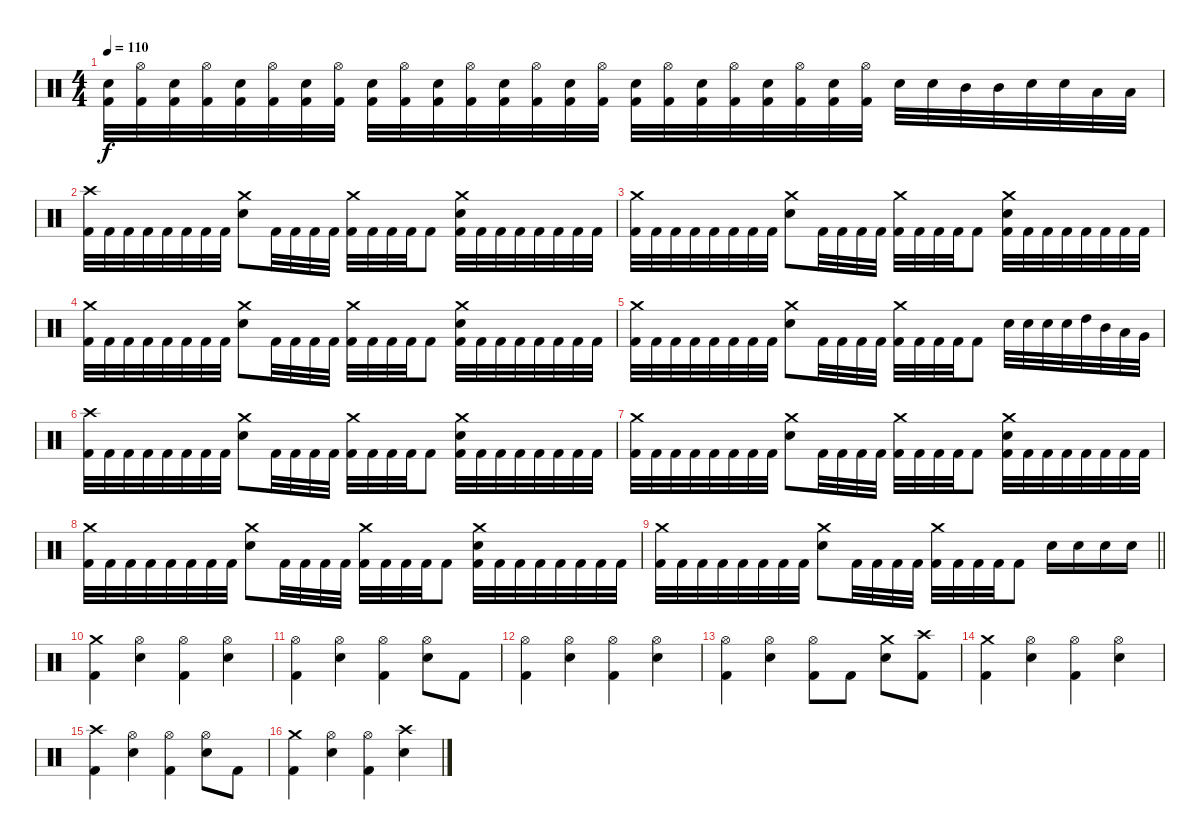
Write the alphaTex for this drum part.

\track "" {instrument percussion}
\staff {score}
\articulation defaults
\ts (4 4)
\tempo 110
\clef neutral
\ks c
("Electric Snare (hit)" "Kick (hit) 2").32{dy f} ("Hi-Hat (open)" "Kick (hit) 2").32 ("Electric Snare (hit)" "Kick (hit) 2").32 ("Hi-Hat (open)" "Kick (hit) 2").32 ("Electric Snare (hit)" "Kick (hit) 2").32 ("Hi-Hat (open)" "Kick (hit) 2").32 ("Electric Snare (hit)" "Kick (hit) 2").32 ("Hi-Hat (open)" "Kick (hit) 2").32 ("Electric Snare (hit)" "Kick (hit) 2").32 ("Hi-Hat (open)" "Kick (hit) 2").32 ("Electric Snare (hit)" "Kick (hit) 2").32 ("Hi-Hat (open)" "Kick (hit) 2").32 ("Electric Snare (hit)" "Kick (hit) 2").32 ("Hi-Hat (open)" "Kick (hit) 2").32 ("Electric Snare (hit)" "Kick (hit) 2").32 ("Hi-Hat (open)" "Kick (hit) 2").32 ("Electric Snare (hit)" "Kick (hit) 2").32 ("Hi-Hat (open)" "Kick (hit) 2").32 ("Electric Snare (hit)" "Kick (hit) 2").32 ("Hi-Hat (open)" "Kick (hit) 2").32 ("Electric Snare (hit)" "Kick (hit) 2").32 ("Hi-Hat (open)" "Kick (hit) 2").32 ("Electric Snare (hit)" "Kick (hit) 2").32 ("Hi-Hat (open)" "Kick (hit) 2").32 "Electric Snare (hit)".32 "Electric Snare (hit)".32 "Mid Tom (hit)".32 "Mid Tom (hit)".32 "Electric Snare (hit)".32 "Electric Snare (hit)".32 "Low Tom (hit)".32 "Low Tom (hit)".32 |
("Crash high (hit)" "Kick (hit) 2").32 "Kick (hit) 2".32 "Kick (hit) 2".32 "Kick (hit) 2".32 "Kick (hit) 2".32 "Kick (hit) 2".32 "Kick (hit) 2".32 "Kick (hit) 2".32 ("Crash medium (hit)" "Electric Snare (hit)").8 "Kick (hit) 2".32 "Kick (hit) 2".32 "Kick (hit) 2".32 "Kick (hit) 2".32 ("Crash medium (hit)" "Kick (hit) 2").32 "Kick (hit) 2".32 "Kick (hit) 2".32 "Kick (hit) 2".32 "Kick (hit) 2".8 ("Crash medium (hit)" "Electric Snare (hit)" "Kick (hit) 2").32 "Kick (hit) 2".32 "Kick (hit) 2".32 "Kick (hit) 2".32 "Kick (hit) 2".32 "Kick (hit) 2".32 "Kick (hit) 2".32 "Kick (hit) 2".32 |
("Crash medium (hit)" "Kick (hit) 2").32 "Kick (hit) 2".32 "Kick (hit) 2".32 "Kick (hit) 2".32 "Kick (hit) 2".32 "Kick (hit) 2".32 "Kick (hit) 2".32 "Kick (hit) 2".32 ("Crash medium (hit)" "Electric Snare (hit)").8 "Kick (hit) 2".32 "Kick (hit) 2".32 "Kick (hit) 2".32 "Kick (hit) 2".32 ("Crash medium (hit)" "Kick (hit) 2").32 "Kick (hit) 2".32 "Kick (hit) 2".32 "Kick (hit) 2".32 "Kick (hit) 2".8 ("Crash medium (hit)" "Electric Snare (hit)" "Kick (hit) 2").32 "Kick (hit) 2".32 "Kick (hit) 2".32 "Kick (hit) 2".32 "Kick (hit) 2".32 "Kick (hit) 2".32 "Kick (hit) 2".32 "Kick (hit) 2".32 |
("Crash medium (hit)" "Kick (hit) 2").32 "Kick (hit) 2".32 "Kick (hit) 2".32 "Kick (hit) 2".32 "Kick (hit) 2".32 "Kick (hit) 2".32 "Kick (hit) 2".32 "Kick (hit) 2".32 ("Crash medium (hit)" "Electric Snare (hit)").8 "Kick (hit) 2".32 "Kick (hit) 2".32 "Kick (hit) 2".32 "Kick (hit) 2".32 ("Crash medium (hit)" "Kick (hit) 2").32 "Kick (hit) 2".32 "Kick (hit) 2".32 "Kick (hit) 2".32 "Kick (hit) 2".8 ("Crash medium (hit)" "Electric Snare (hit)" "Kick (hit) 2").32 "Kick (hit) 2".32 "Kick (hit) 2".32 "Kick (hit) 2".32 "Kick (hit) 2".32 "Kick (hit) 2".32 "Kick (hit) 2".32 "Kick (hit) 2".32 |
("Crash medium (hit)" "Kick (hit) 2").32 "Kick (hit) 2".32 "Kick (hit) 2".32 "Kick (hit) 2".32 "Kick (hit) 2".32 "Kick (hit) 2".32 "Kick (hit) 2".32 "Kick (hit) 2".32 ("Crash medium (hit)" "Electric Snare (hit)").8 "Kick (hit) 2".32 "Kick (hit) 2".32 "Kick (hit) 2".32 "Kick (hit) 2".32 ("Crash medium (hit)" "Kick (hit) 2").32 "Kick (hit) 2".32 "Kick (hit) 2".32 "Kick (hit) 2".32 "Kick (hit) 2".8 "Electric Snare (hit)".32 "Electric Snare (hit)".32 "Electric Snare (hit)".32 "Electric Snare (hit)".32 "High Tom (hit)".32 "Mid Tom (hit)".32 "Low Tom (hit)".32 "Very Low Tom (hit)".32 |
("Crash high (hit)" "Kick (hit) 2").32 "Kick (hit) 2".32 "Kick (hit) 2".32 "Kick (hit) 2".32 "Kick (hit) 2".32 "Kick (hit) 2".32 "Kick (hit) 2".32 "Kick (hit) 2".32 ("Crash medium (hit)" "Electric Snare (hit)").8 "Kick (hit) 2".32 "Kick (hit) 2".32 "Kick (hit) 2".32 "Kick (hit) 2".32 ("Crash medium (hit)" "Kick (hit) 2").32 "Kick (hit) 2".32 "Kick (hit) 2".32 "Kick (hit) 2".32 "Kick (hit) 2".8 ("Crash medium (hit)" "Electric Snare (hit)" "Kick (hit) 2").32 "Kick (hit) 2".32 "Kick (hit) 2".32 "Kick (hit) 2".32 "Kick (hit) 2".32 "Kick (hit) 2".32 "Kick (hit) 2".32 "Kick (hit) 2".32 |
("Crash medium (hit)" "Kick (hit) 2").32 "Kick (hit) 2".32 "Kick (hit) 2".32 "Kick (hit) 2".32 "Kick (hit) 2".32 "Kick (hit) 2".32 "Kick (hit) 2".32 "Kick (hit) 2".32 ("Crash medium (hit)" "Electric Snare (hit)").8 "Kick (hit) 2".32 "Kick (hit) 2".32 "Kick (hit) 2".32 "Kick (hit) 2".32 ("Crash medium (hit)" "Kick (hit) 2").32 "Kick (hit) 2".32 "Kick (hit) 2".32 "Kick (hit) 2".32 "Kick (hit) 2".8 ("Crash medium (hit)" "Electric Snare (hit)" "Kick (hit) 2").32 "Kick (hit) 2".32 "Kick (hit) 2".32 "Kick (hit) 2".32 "Kick (hit) 2".32 "Kick (hit) 2".32 "Kick (hit) 2".32 "Kick (hit) 2".32 |
("Crash medium (hit)" "Kick (hit) 2").32 "Kick (hit) 2".32 "Kick (hit) 2".32 "Kick (hit) 2".32 "Kick (hit) 2".32 "Kick (hit) 2".32 "Kick (hit) 2".32 "Kick (hit) 2".32 ("Crash medium (hit)" "Electric Snare (hit)").8 "Kick (hit) 2".32 "Kick (hit) 2".32 "Kick (hit) 2".32 "Kick (hit) 2".32 ("Crash medium (hit)" "Kick (hit) 2").32 "Kick (hit) 2".32 "Kick (hit) 2".32 "Kick (hit) 2".32 "Kick (hit) 2".8 ("Crash medium (hit)" "Electric Snare (hit)" "Kick (hit) 2").32 "Kick (hit) 2".32 "Kick (hit) 2".32 "Kick (hit) 2".32 "Kick (hit) 2".32 "Kick (hit) 2".32 "Kick (hit) 2".32 "Kick (hit) 2".32 |
\barLineRight lightlight
("Crash medium (hit)" "Kick (hit) 2").32 "Kick (hit) 2".32 "Kick (hit) 2".32 "Kick (hit) 2".32 "Kick (hit) 2".32 "Kick (hit) 2".32 "Kick (hit) 2".32 "Kick (hit) 2".32 ("Crash medium (hit)" "Electric Snare (hit)").8 "Kick (hit) 2".32 "Kick (hit) 2".32 "Kick (hit) 2".32 "Kick (hit) 2".32 ("Crash medium (hit)" "Kick (hit) 2").32 "Kick (hit) 2".32 "Kick (hit) 2".32 "Kick (hit) 2".32 "Kick (hit) 2".8 "Electric Snare (hit)".16 "Electric Snare (hit)".16 "Electric Snare (hit)".16 "Electric Snare (hit)".16 |
("Crash medium (hit)" "Kick (hit) 2").4 ("Hi-Hat (open)" "Electric Snare (hit)").4 ("Hi-Hat (open)" "Kick (hit) 2").4 ("Hi-Hat (open)" "Electric Snare (hit)").4 |
("Hi-Hat (open)" "Kick (hit) 2").4 ("Hi-Hat (open)" "Electric Snare (hit)").4 ("Hi-Hat (open)" "Kick (hit) 2").4 ("Hi-Hat (open)" "Electric Snare (hit)").8 "Kick (hit) 2".8 |
("Hi-Hat (open)" "Kick (hit) 2").4 ("Hi-Hat (open)" "Electric Snare (hit)").4 ("Hi-Hat (open)" "Kick (hit) 2").4 ("Hi-Hat (open)" "Electric Snare (hit)").4 |
("Hi-Hat (open)" "Kick (hit) 2").4 ("Hi-Hat (open)" "Electric Snare (hit)").4 ("Hi-Hat (open)" "Kick (hit) 2").8 "Kick (hit) 2".8 ("Crash medium (hit)" "Electric Snare (hit)").8 ("Crash high (hit)" "Kick (hit) 2").8 |
("Crash medium (hit)" "Kick (hit) 2").4 ("Hi-Hat (open)" "Electric Snare (hit)").4 ("Hi-Hat (open)" "Kick (hit) 2").4 ("Hi-Hat (open)" "Electric Snare (hit)").4 |
("Crash high (hit)" "Kick (hit) 2").4 ("Hi-Hat (open)" "Electric Snare (hit)").4 ("Hi-Hat (open)" "Kick (hit) 2").4 ("Hi-Hat (open)" "Electric Snare (hit)").8 "Kick (hit) 2".8 |
("Crash medium (hit)" "Kick (hit) 2").4 ("Hi-Hat (open)" "Electric Snare (hit)").4 ("Hi-Hat (open)" "Kick (hit) 2").4 ("Crash high (hit)" "Electric Snare (hit)").4
